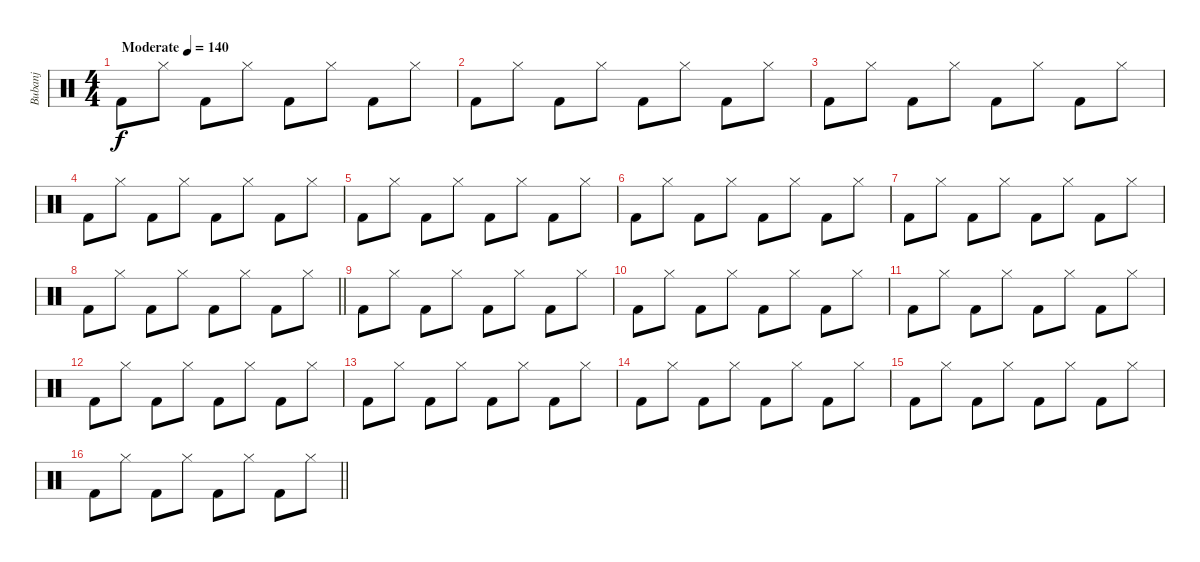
\track ("Bubanj" "Bubanj") {instrument percussion}
\staff {score}
\articulation defaults
\ts (4 4)
\tempo (140 "Moderate")
\clef neutral
\ks c "Kick (hit) 2".8{dy f} "Hi-Hat (closed)".8 "Kick (hit) 2".8 "Hi-Hat (closed)".8 "Kick (hit) 2".8 "Hi-Hat (closed)".8 "Kick (hit) 2".8 "Hi-Hat (closed)".8
|
"Kick (hit) 2".8 "Hi-Hat (closed)".8 "Kick (hit) 2".8 "Hi-Hat (closed)".8 "Kick (hit) 2".8 "Hi-Hat (closed)".8 "Kick (hit) 2".8 "Hi-Hat (closed)".8 |
"Kick (hit) 2".8 "Hi-Hat (closed)".8 "Kick (hit) 2".8 "Hi-Hat (closed)".8 "Kick (hit) 2".8 "Hi-Hat (closed)".8 "Kick (hit) 2".8 "Hi-Hat (closed)".8 |
"Kick (hit) 2".8 "Hi-Hat (closed)".8 "Kick (hit) 2".8 "Hi-Hat (closed)".8 "Kick (hit) 2".8 "Hi-Hat (closed)".8 "Kick (hit) 2".8 "Hi-Hat (closed)".8 |
"Kick (hit) 2".8 "Hi-Hat (closed)".8 "Kick (hit) 2".8 "Hi-Hat (closed)".8 "Kick (hit) 2".8 "Hi-Hat (closed)".8 "Kick (hit) 2".8 "Hi-Hat (closed)".8 |
"Kick (hit) 2".8 "Hi-Hat (closed)".8 "Kick (hit) 2".8 "Hi-Hat (closed)".8 "Kick (hit) 2".8 "Hi-Hat (closed)".8 "Kick (hit) 2".8 "Hi-Hat (closed)".8 |
"Kick (hit) 2".8 "Hi-Hat (closed)".8 "Kick (hit) 2".8 "Hi-Hat (closed)".8 "Kick (hit) 2".8 "Hi-Hat (closed)".8 "Kick (hit) 2".8 "Hi-Hat (closed)".8 |
\barLineRight lightlight "Kick (hit) 2".8 "Hi-Hat (closed)".8 "Kick (hit) 2".8 "Hi-Hat (closed)".8 "Kick (hit) 2".8 "Hi-Hat (closed)".8 "Kick (hit) 2".8 "Hi-Hat (closed)".8
|
"Kick (hit) 2".8 "Hi-Hat (closed)".8 "Kick (hit) 2".8 "Hi-Hat (closed)".8 "Kick (hit) 2".8 "Hi-Hat (closed)".8 "Kick (hit) 2".8 "Hi-Hat (closed)".8 |
"Kick (hit) 2".8 "Hi-Hat (closed)".8 "Kick (hit) 2".8 "Hi-Hat (closed)".8 "Kick (hit) 2".8 "Hi-Hat (closed)".8 "Kick (hit) 2".8 "Hi-Hat (closed)".8 |
"Kick (hit) 2".8 "Hi-Hat (closed)".8 "Kick (hit) 2".8 "Hi-Hat (closed)".8 "Kick (hit) 2".8 "Hi-Hat (closed)".8 "Kick (hit) 2".8 "Hi-Hat (closed)".8 |
"Kick (hit) 2".8 "Hi-Hat (closed)".8 "Kick (hit) 2".8 "Hi-Hat (closed)".8 "Kick (hit) 2".8 "Hi-Hat (closed)".8 "Kick (hit) 2".8 "Hi-Hat (closed)".8 |
"Kick (hit) 2".8 "Hi-Hat (closed)".8 "Kick (hit) 2".8 "Hi-Hat (closed)".8 "Kick (hit) 2".8 "Hi-Hat (closed)".8 "Kick (hit) 2".8 "Hi-Hat (closed)".8 |
"Kick (hit) 2".8 "Hi-Hat (closed)".8 "Kick (hit) 2".8 "Hi-Hat (closed)".8 "Kick (hit) 2".8 "Hi-Hat (closed)".8 "Kick (hit) 2".8 "Hi-Hat (closed)".8 |
"Kick (hit) 2".8 "Hi-Hat (closed)".8 "Kick (hit) 2".8 "Hi-Hat (closed)".8 "Kick (hit) 2".8 "Hi-Hat (closed)".8 "Kick (hit) 2".8 "Hi-Hat (closed)".8 |
\barLineRight lightlight "Kick (hit) 2".8 "Hi-Hat (closed)".8 "Kick (hit) 2".8 "Hi-Hat (closed)".8 "Kick (hit) 2".8 "Hi-Hat (closed)".8 "Kick (hit) 2".8 "Hi-Hat (closed)".8
